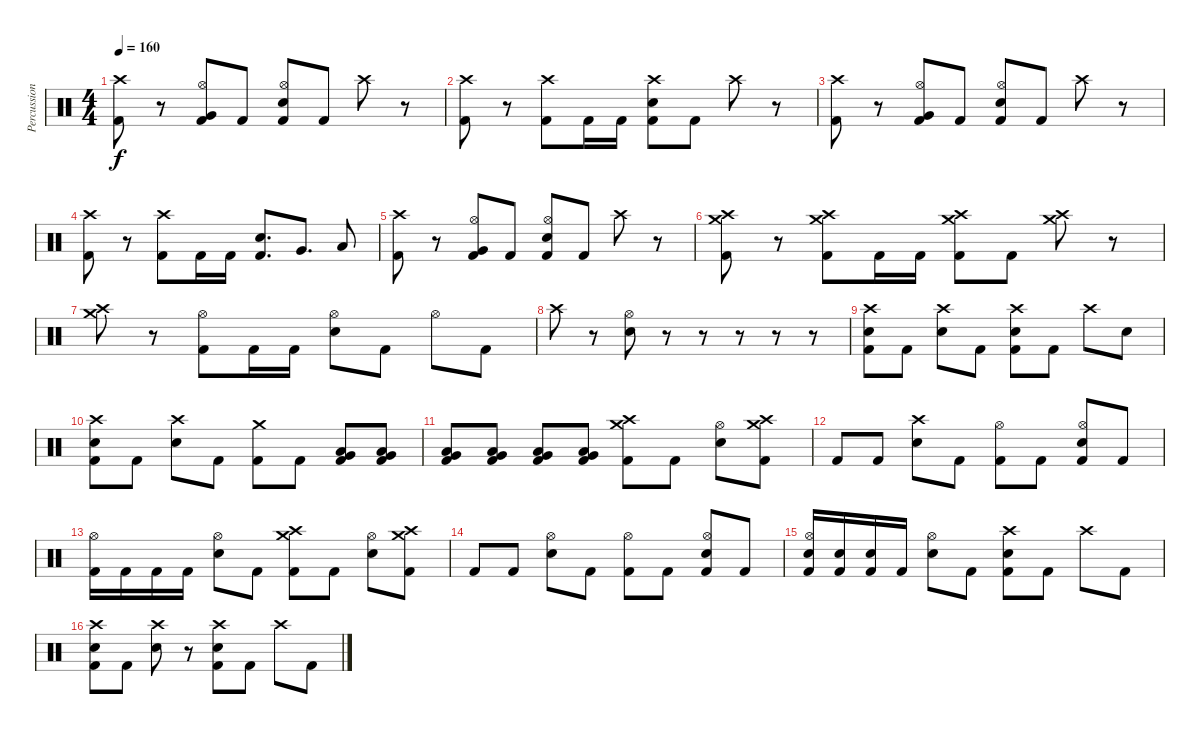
\track ("Percussion" "Percussion") {instrument percussion}
\staff {score}
\articulation defaults
\ts (4 4)
\tempo 160
\clef neutral
\ks c
("Crash high (hit)" "Kick (hit) 2").8{dy f} r.8 ("Hi-Hat (open)" "Very Low Tom (hit)" "Kick (hit) 2").8 "Kick (hit) 2".8 ("Hi-Hat (open)" "Electric Snare (hit)" "Kick (hit) 2").8 "Kick (hit) 2".8 "Crash high (hit)".8 r.8 |
("Crash high (hit)" "Kick (hit) 2").8 r.8 ("Crash high (hit)" "Kick (hit) 2").8 "Kick (hit) 2".16 "Kick (hit) 2".16 ("Crash high (hit)" "Electric Snare (hit)" "Kick (hit) 2").8 "Kick (hit) 2".8 "Crash high (hit)".8 r.8 |
("Crash high (hit)" "Kick (hit) 2").8 r.8 ("Hi-Hat (open)" "Very Low Tom (hit)" "Kick (hit) 2").8 "Kick (hit) 2".8 ("Hi-Hat (open)" "Electric Snare (hit)" "Kick (hit) 2").8 "Kick (hit) 2".8 "Crash high (hit)".8 r.8 |
("Crash high (hit)" "Kick (hit) 2").8 r.8 ("Crash high (hit)" "Kick (hit) 2").8 "Kick (hit) 2".16 "Kick (hit) 2".16 ("Electric Snare (hit)" "Kick (hit) 2").8{d} "Very Low Tom (hit)".8{d} "Low Floor Tom (hit)".8 |
("Crash high (hit)" "Kick (hit) 2").8 r.8 ("Hi-Hat (open)" "Very Low Tom (hit)" "Kick (hit) 2").8 "Kick (hit) 2".8 ("Hi-Hat (open)" "Electric Snare (hit)" "Kick (hit) 2").8 "Kick (hit) 2".8 "Crash high (hit)".8 r.8 |
("Crash high (hit)" "Crash medium (hit)" "Kick (hit) 2").8 r.8 ("Crash high (hit)" "Crash medium (hit)" "Kick (hit) 2").8 "Kick (hit) 2".16 "Kick (hit) 2".16 ("Crash high (hit)" "Crash medium (hit)" "Kick (hit) 2").8 "Kick (hit) 2".8 ("Crash high (hit)" "Crash medium (hit)").8 r.8 |
("Crash high (hit)" "Crash medium (hit)").8 r.8 ("Hi-Hat (open)" "Kick (hit) 2").8 "Kick (hit) 2".16 "Kick (hit) 2".16 ("Hi-Hat (open)" "Electric Snare (hit)").8 "Kick (hit) 2".8 "Hi-Hat (open)".8 "Kick (hit) 2".8 |
"Crash high (hit)".8 r.8 ("Hi-Hat (open)" "Electric Snare (hit)").8 r.8 r.8 r.8 r.8 r.8 |
("Crash high (hit)" "Electric Snare (hit)" "Kick (hit) 2").8 "Kick (hit) 2".8 ("Crash high (hit)" "Electric Snare (hit)").8 "Kick (hit) 2".8 ("Crash high (hit)" "Electric Snare (hit)" "Kick (hit) 2").8 "Kick (hit) 2".8 "Crash high (hit)".8 "Electric Snare (hit)".8 |
("Crash high (hit)" "Electric Snare (hit)" "Kick (hit) 2").8 "Kick (hit) 2".8 ("Crash high (hit)" "Electric Snare (hit)").8 "Kick (hit) 2".8 ("Crash medium (hit)" "Kick (hit) 2").8 "Kick (hit) 2".8 ("Low Floor Tom (hit)" "Very Low Tom (hit)" "Kick (hit) 2").8 ("Low Floor Tom (hit)" "Very Low Tom (hit)" "Kick (hit) 2").8 |
("Low Floor Tom (hit)" "Very Low Tom (hit)" "Kick (hit) 2").8 ("Low Floor Tom (hit)" "Very Low Tom (hit)" "Kick (hit) 2").8 ("Low Floor Tom (hit)" "Very Low Tom (hit)" "Kick (hit) 2").8 ("Low Floor Tom (hit)" "Very Low Tom (hit)" "Kick (hit) 2").8 ("Crash medium (hit)" "Crash high (hit)" "Kick (hit) 2").8 "Kick (hit) 2".8 ("Hi-Hat (open)" "Electric Snare (hit)").8 ("Crash medium (hit)" "Crash high (hit)" "Kick (hit) 2").8 |
"Kick (hit) 2".8 "Kick (hit) 2".8 ("Crash high (hit)" "Electric Snare (hit)").8 "Kick (hit) 2".8 ("Hi-Hat (open)" "Kick (hit) 2").8 "Kick (hit) 2".8 ("Hi-Hat (open)" "Electric Snare (hit)" "Kick (hit) 2").8 "Kick (hit) 2".8 |
("Hi-Hat (open)" "Kick (hit) 2").16 "Kick (hit) 2".16 "Kick (hit) 2".16 "Kick (hit) 2".16 ("Hi-Hat (open)" "Electric Snare (hit)").8 "Kick (hit) 2".8 ("Crash medium (hit)" "Crash high (hit)" "Kick (hit) 2").8 "Kick (hit) 2".8 ("Hi-Hat (open)" "Electric Snare (hit)").8 ("Crash medium (hit)" "Crash high (hit)" "Kick (hit) 2").8 |
"Kick (hit) 2".8 "Kick (hit) 2".8 ("Hi-Hat (open)" "Electric Snare (hit)").8 "Kick (hit) 2".8 ("Hi-Hat (open)" "Kick (hit) 2").8 "Kick (hit) 2".8 ("Hi-Hat (open)" "Electric Snare (hit)" "Kick (hit) 2").8 "Kick (hit) 2".8 |
("Hi-Hat (open)" "Electric Snare (hit)" "Kick (hit) 2").16 ("Electric Snare (hit)" "Kick (hit) 2").16 ("Electric Snare (hit)" "Kick (hit) 2").16 "Kick (hit) 2".16 ("Hi-Hat (open)" "Electric Snare (hit)").8 "Kick (hit) 2".8 ("Crash high (hit)" "Electric Snare (hit)" "Kick (hit) 2").8 "Kick (hit) 2".8 "Crash high (hit)".8 "Kick (hit) 2".8 |
("Crash high (hit)" "Electric Snare (hit)" "Kick (hit) 2").8 "Kick (hit) 2".8 ("Crash high (hit)" "Electric Snare (hit)").8 r.8 ("Crash high (hit)" "Electric Snare (hit)" "Kick (hit) 2").8 "Kick (hit) 2".8 "Crash high (hit)".8 "Kick (hit) 2".8
